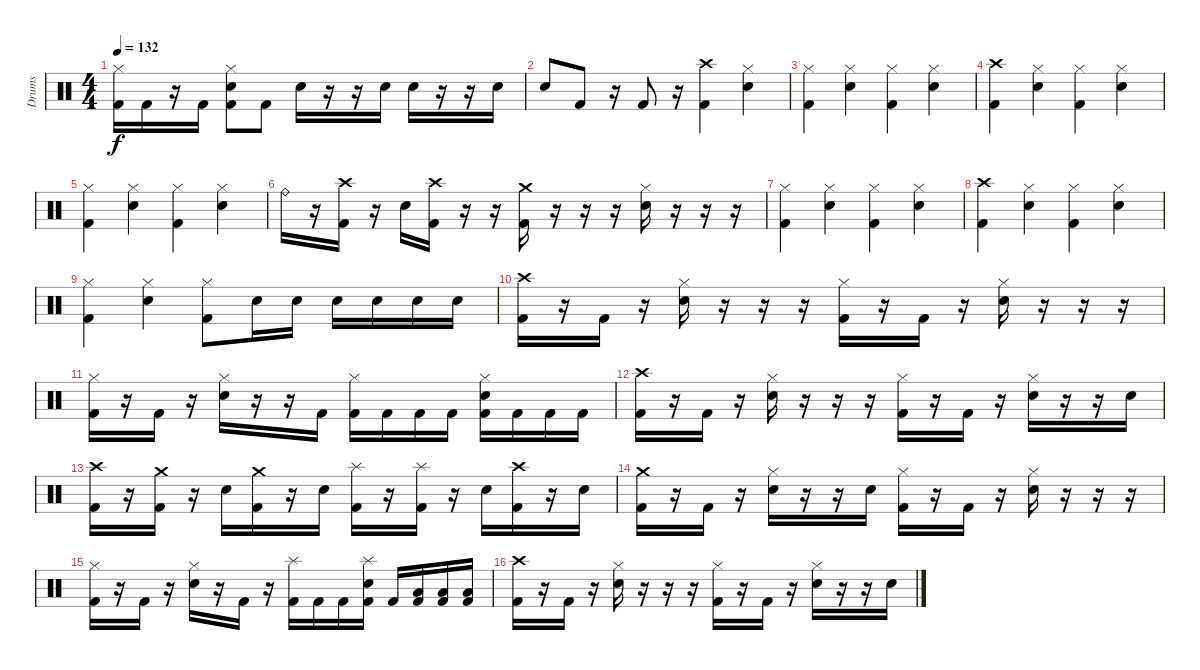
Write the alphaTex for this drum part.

\track ("Drums" "Drums") {instrument percussion}
\staff {score}
\articulation defaults
\ts (4 4)
\tempo 132
\clef neutral
\ks c
("Hi-Hat (closed)" "Kick (hit) 2").16{dy f} "Kick (hit) 2".16 r.16 "Kick (hit) 2".16 ("Hi-Hat (closed)" "Electric Snare (hit)" "Kick (hit) 2").8 "Kick (hit) 2".8 "Electric Snare (hit)".16 r.16 r.16 "Electric Snare (hit)".16 "Electric Snare (hit)".16 r.16 r.16 "Electric Snare (hit)".16 |
"Electric Snare (hit)".8 "Kick (hit) 2".8 r.16 "Kick (hit) 2".8 r.16 ("Crash high (hit)" "Kick (hit) 2").4 ("Hi-Hat (closed)" "Electric Snare (hit)").4 |
("Hi-Hat (closed)" "Kick (hit) 2").4 ("Hi-Hat (closed)" "Electric Snare (hit)").4 ("Hi-Hat (closed)" "Kick (hit) 2").4 ("Hi-Hat (closed)" "Electric Snare (hit)").4 |
("Crash high (hit)" "Kick (hit) 2").4 ("Hi-Hat (closed)" "Electric Snare (hit)").4 ("Hi-Hat (closed)" "Kick (hit) 2").4 ("Hi-Hat (closed)" "Electric Snare (hit)").4 |
("Hi-Hat (closed)" "Kick (hit) 2").4 ("Hi-Hat (closed)" "Electric Snare (hit)").4 ("Hi-Hat (closed)" "Kick (hit) 2").4 ("Hi-Hat (closed)" "Electric Snare (hit)").4 |
"Ride (bell)".16 r.16 ("Crash high (hit)" "Kick (hit) 2").16 r.16 "Electric Snare (hit)".16 ("Crash high (hit)" "Kick (hit) 2").16 r.16 r.16 ("Crash medium (hit)" "Kick (hit) 2").16 r.16 r.16 r.16 ("Hi-Hat (closed)" "Electric Snare (hit)").16 r.16 r.16 r.16 |
("Hi-Hat (closed)" "Kick (hit) 2").4 ("Hi-Hat (closed)" "Electric Snare (hit)").4 ("Hi-Hat (closed)" "Kick (hit) 2").4 ("Hi-Hat (closed)" "Electric Snare (hit)").4 |
("Crash high (hit)" "Kick (hit) 2").4 ("Hi-Hat (closed)" "Electric Snare (hit)").4 ("Hi-Hat (closed)" "Kick (hit) 2").4 ("Hi-Hat (closed)" "Electric Snare (hit)").4 |
("Hi-Hat (closed)" "Kick (hit) 2").4 ("Hi-Hat (closed)" "Electric Snare (hit)").4 ("Hi-Hat (closed)" "Kick (hit) 2").8 "Electric Snare (hit)".16 "Electric Snare (hit)".16 "Electric Snare (hit)".16 "Electric Snare (hit)".16 "Electric Snare (hit)".16 "Electric Snare (hit)".16 |
("Crash high (hit)" "Kick (hit) 2").16 r.16 "Kick (hit) 2".16 r.16 ("Hi-Hat (closed)" "Electric Snare (hit)").16 r.16 r.16 r.16 ("Hi-Hat (closed)" "Kick (hit) 2").16 r.16 "Kick (hit) 2".16 r.16 ("Hi-Hat (closed)" "Electric Snare (hit)").16 r.16 r.16 r.16 |
("Hi-Hat (closed)" "Kick (hit) 2").16 r.16 "Kick (hit) 2".16 r.16 ("Hi-Hat (closed)" "Electric Snare (hit)").16 r.16 r.16 "Kick (hit) 2".16 ("Hi-Hat (closed)" "Kick (hit) 2").16 "Kick (hit) 2".16 "Kick (hit) 2".16 "Kick (hit) 2".16 ("Hi-Hat (closed)" "Electric Snare (hit)" "Kick (hit) 2").16 "Kick (hit) 2".16 "Kick (hit) 2".16 "Kick (hit) 2".16 |
("Crash high (hit)" "Kick (hit) 2").16 r.16 "Kick (hit) 2".16 r.16 ("Hi-Hat (closed)" "Electric Snare (hit)").16 r.16 r.16 r.16 ("Hi-Hat (closed)" "Kick (hit) 2").16 r.16 "Kick (hit) 2".16 r.16 ("Hi-Hat (closed)" "Electric Snare (hit)").16 r.16 r.16 "Electric Snare (hit)".16 |
("Crash high (hit)" "Kick (hit) 2").16 r.16 ("Crash medium (hit)" "Kick (hit) 2").16 r.16 "Electric Snare (hit)".16 ("Crash medium (hit)" "Kick (hit) 2").16 r.16 "Electric Snare (hit)".16 ("Splash (hit)" "Kick (hit) 2").16 r.16 ("Splash (hit)" "Kick (hit) 2").16 r.16 "Electric Snare (hit)".16 ("Crash high (hit)" "Kick (hit) 2").16 r.16 "Electric Snare (hit)".16 |
("Crash medium (hit)" "Kick (hit) 2").16 r.16 "Kick (hit) 2".16 r.16 ("Hi-Hat (closed)" "Electric Snare (hit)").16 r.16 r.16 "Electric Snare (hit)".16 ("Hi-Hat (closed)" "Kick (hit) 2").16 r.16 "Kick (hit) 2".16 r.16 ("Hi-Hat (closed)" "Electric Snare (hit)").16 r.16 r.16 r.16 |
("Hi-Hat (closed)" "Kick (hit) 2").16 r.16 "Kick (hit) 2".16 r.16 ("Hi-Hat (closed)" "Electric Snare (hit)").16 r.16 "Kick (hit) 2".16 r.16 ("Splash (hit)" "Kick (hit) 2").16 "Kick (hit) 2".16 "Kick (hit) 2".16 ("Splash (hit)" "Electric Snare (hit)" "Kick (hit) 2").16 "Kick (hit) 2".16 ("Low Tom (hit)" "Kick (hit) 2").16 ("Low Tom (hit)" "Kick (hit) 2").16 ("Low Tom (hit)" "Kick (hit) 2").16 |
("Crash high (hit)" "Kick (hit) 2").16 r.16 "Kick (hit) 2".16 r.16 ("Hi-Hat (closed)" "Electric Snare (hit)").16 r.16 r.16 r.16 ("Hi-Hat (closed)" "Kick (hit) 2").16 r.16 "Kick (hit) 2".16 r.16 ("Hi-Hat (closed)" "Electric Snare (hit)").16 r.16 r.16 "Electric Snare (hit)".16
